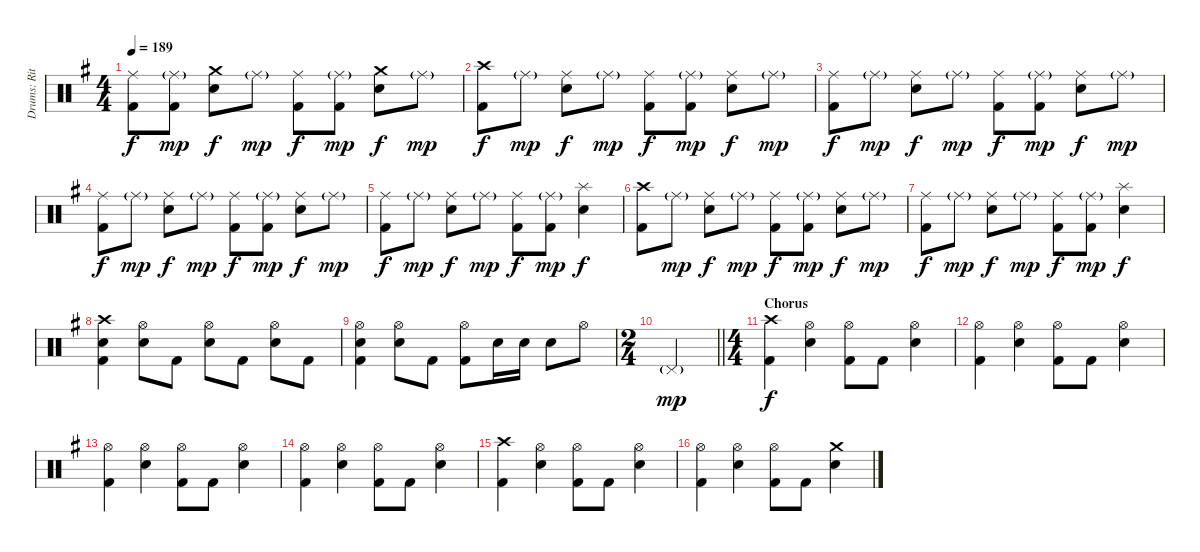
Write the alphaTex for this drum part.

\track ("Drums: Ritsu Tainaka" "Drums: Rit") {instrument percussion}
\staff {score}
\articulation defaults
\ts (4 4)
\tempo 189
\clef neutral
\ks g
("Ride (middle)" "Kick (hit) 2").8{dy f} ("Ride (middle)"{g} "Kick (hit) 2").8{dy mp} ("Crash medium (hit)" "Electric Snare (hit)").8{dy f} "Ride (middle)"{g}.8{dy mp} ("Ride (middle)" "Kick (hit) 2").8{dy f} ("Ride (middle)"{g} "Kick (hit) 2").8{dy mp} ("Crash medium (hit)" "Electric Snare (hit)").8{dy f} "Ride (middle)"{g}.8{dy mp} |
("Crash high (hit)" "Kick (hit) 2").8{dy f} "Ride (middle)"{g}.8{dy mp} ("Ride (middle)" "Electric Snare (hit)").8{dy f} "Ride (middle)"{g}.8{dy mp} ("Ride (middle)" "Kick (hit) 2").8{dy f} ("Ride (middle)"{g} "Kick (hit) 2").8{dy mp} ("Ride (middle)" "Electric Snare (hit)").8{dy f} "Ride (middle)"{g}.8{dy mp} |
("Ride (middle)" "Kick (hit) 2").8{dy f} "Ride (middle)"{g}.8{dy mp} ("Ride (middle)" "Electric Snare (hit)").8{dy f} "Ride (middle)"{g}.8{dy mp} ("Ride (middle)" "Kick (hit) 2").8{dy f} ("Ride (middle)"{g} "Kick (hit) 2").8{dy mp} ("Ride (middle)" "Electric Snare (hit)").8{dy f} "Ride (middle)"{g}.8{dy mp} |
("Ride (middle)" "Kick (hit) 2").8{dy f} "Ride (middle)"{g}.8{dy mp} ("Ride (middle)" "Electric Snare (hit)").8{dy f} "Ride (middle)"{g}.8{dy mp} ("Ride (middle)" "Kick (hit) 2").8{dy f} ("Ride (middle)"{g} "Kick (hit) 2").8{dy mp} ("Ride (middle)" "Electric Snare (hit)").8{dy f} "Ride (middle)"{g}.8{dy mp} |
("Ride (middle)" "Kick (hit) 2").8{dy f} "Ride (middle)"{g}.8{dy mp} ("Ride (middle)" "Electric Snare (hit)").8{dy f} "Ride (middle)"{g}.8{dy mp} ("Ride (middle)" "Kick (hit) 2").8{dy f} ("Ride (middle)"{g} "Kick (hit) 2").8{dy mp} ("Splash (hit)" "Electric Snare (hit)").4{dy f} |
("Crash high (hit)" "Kick (hit) 2").8 "Ride (middle)"{g}.8{dy mp} ("Ride (middle)" "Electric Snare (hit)").8{dy f} "Ride (middle)"{g}.8{dy mp} ("Ride (middle)" "Kick (hit) 2").8{dy f} ("Ride (middle)"{g} "Kick (hit) 2").8{dy mp} ("Ride (middle)" "Electric Snare (hit)").8{dy f} "Ride (middle)"{g}.8{dy mp} |
("Ride (middle)" "Kick (hit) 2").8{dy f} "Ride (middle)"{g}.8{dy mp} ("Ride (middle)" "Electric Snare (hit)").8{dy f} "Ride (middle)"{g}.8{dy mp} ("Ride (middle)" "Kick (hit) 2").8{dy f} ("Ride (middle)"{g} "Kick (hit) 2").8{dy mp} ("Splash (hit)" "Electric Snare (hit)").4{dy f} |
("Crash high (hit)" "Electric Snare (hit)" "Kick (hit) 2").4 ("Hi-Hat (open)" "Electric Snare (hit)").8 "Kick (hit) 2".8 ("Hi-Hat (open)" "Electric Snare (hit)").8 "Kick (hit) 2".8 ("Hi-Hat (open)" "Electric Snare (hit)").8 "Kick (hit) 2".8 |
("Hi-Hat (open)" "Electric Snare (hit)" "Kick (hit) 2").4 ("Hi-Hat (open)" "Electric Snare (hit)").8 "Kick (hit) 2".8 ("Hi-Hat (open)" "Kick (hit) 2").8 "Electric Snare (hit)".16 "Electric Snare (hit)".16 "Electric Snare (hit)".8 "Hi-Hat (open)".8 |
\ts (2 4)
\barLineRight lightlight "Pedal Hi-Hat (hit)"{g}.2{dy mp}
|
\ts (4 4)
\section ("" "Chorus")
("Crash high (hit)" "Kick (hit) 2").4{dy f} ("Hi-Hat (open)" "Electric Snare (hit)").4 ("Hi-Hat (open)" "Kick (hit) 2").8 "Kick (hit) 2".8 ("Hi-Hat (open)" "Electric Snare (hit)").4 |
("Hi-Hat (open)" "Kick (hit) 2").4 ("Hi-Hat (open)" "Electric Snare (hit)").4 ("Hi-Hat (open)" "Kick (hit) 2").8 "Kick (hit) 2".8 ("Hi-Hat (open)" "Electric Snare (hit)").4 |
("Hi-Hat (open)" "Kick (hit) 2").4 ("Hi-Hat (open)" "Electric Snare (hit)").4 ("Hi-Hat (open)" "Kick (hit) 2").8 "Kick (hit) 2".8 ("Hi-Hat (open)" "Electric Snare (hit)").4 |
("Hi-Hat (open)" "Kick (hit) 2").4 ("Hi-Hat (open)" "Electric Snare (hit)").4 ("Hi-Hat (open)" "Kick (hit) 2").8 "Kick (hit) 2".8 ("Hi-Hat (open)" "Electric Snare (hit)").4 |
("Crash high (hit)" "Kick (hit) 2").4 ("Hi-Hat (open)" "Electric Snare (hit)").4 ("Hi-Hat (open)" "Kick (hit) 2").8 "Kick (hit) 2".8 ("Hi-Hat (open)" "Electric Snare (hit)").4 |
("Hi-Hat (open)" "Kick (hit) 2").4 ("Hi-Hat (open)" "Electric Snare (hit)").4 ("Hi-Hat (open)" "Kick (hit) 2").8 "Kick (hit) 2".8 ("Crash medium (hit)" "Electric Snare (hit)").4
